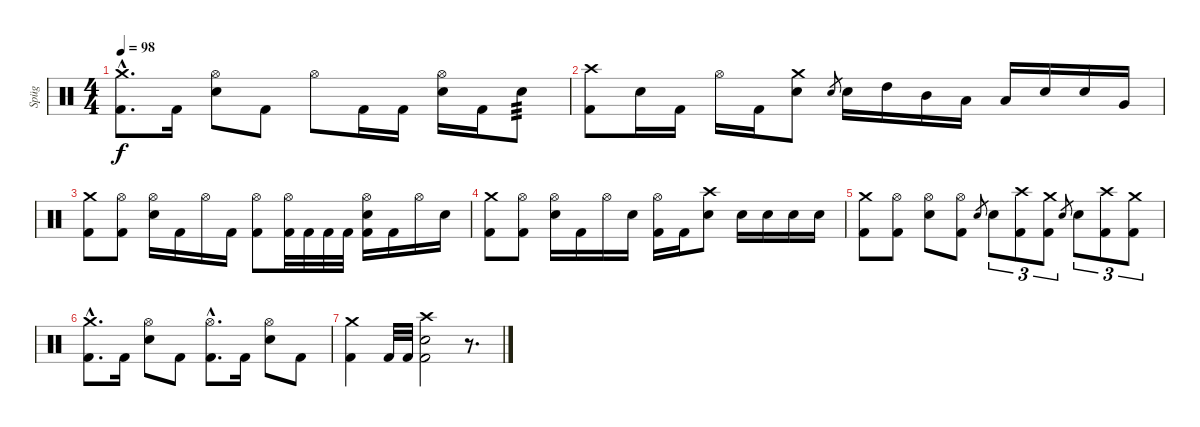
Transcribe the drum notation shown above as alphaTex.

\track ("Spüg" "Spüg") {instrument percussion}
\staff {score}
\articulation defaults
\ts (4 4)
\tempo 98
\clef neutral
\ks c
("Crash medium (hit)"{hac} "Kick (hit) 2"{hac}).8{d dy f volume 16} "Kick (hit) 2".16 ("Hi-Hat (open)" "Electric Snare (hit)").8 "Kick (hit) 2".8 "Hi-Hat (open)".8 "Kick (hit) 2".16 "Kick (hit) 2".16 ("Hi-Hat (open)" "Electric Snare (hit)").16 "Kick (hit) 2".16 "Electric Snare (hit)".8{tp 3} |
("Crash high (hit)" "Kick (hit) 2").8 "Electric Snare (hit)".16 "Kick (hit) 2".16 "Hi-Hat (open)".16 "Kick (hit) 2".16 ("Crash medium (hit)" "Electric Snare (hit)").8 "Electric Snare (hit)".8{gr} "Electric Snare (hit)".16 "High Tom (hit)".16 "Mid Tom (hit)".16 "Low Tom (hit)".16 "Low Tom (hit)".16 "Electric Snare (hit)".16 "Electric Snare (hit)".16 "Very Low Tom (hit)".16 |
("Crash medium (hit)" "Kick (hit) 2").8 ("Hi-Hat (open)" "Kick (hit) 2").8 ("Hi-Hat (open)" "Electric Snare (hit)").16 "Kick (hit) 2".16 "Hi-Hat (open)".16 "Kick (hit) 2".16 ("Hi-Hat (open)" "Kick (hit) 2").8 ("Hi-Hat (open)" "Kick (hit) 2").32 "Kick (hit) 2".32 "Kick (hit) 2".32 "Kick (hit) 2".32 ("Hi-Hat (open)" "Electric Snare (hit)" "Kick (hit) 2").16 "Kick (hit) 2".16 "Hi-Hat (open)".16 "Electric Snare (hit)".16 |
("Crash medium (hit)" "Kick (hit) 2").8 ("Hi-Hat (open)" "Kick (hit) 2").8 ("Hi-Hat (open)" "Electric Snare (hit)").16 "Kick (hit) 2".16 "Hi-Hat (open)".16 "Electric Snare (hit)".16 ("Hi-Hat (open)" "Kick (hit) 2").16 "Kick (hit) 2".16 ("Crash high (hit)" "Electric Snare (hit)").8 "Electric Snare (hit)".16 "Electric Snare (hit)".16 "Electric Snare (hit)".16 "Electric Snare (hit)".16 |
("Crash medium (hit)" "Kick (hit) 2").8 ("Hi-Hat (open)" "Kick (hit) 2").8 ("Hi-Hat (open)" "Electric Snare (hit)").8 ("Hi-Hat (open)" "Kick (hit) 2").8 "Electric Snare (hit)".8{gr} "Electric Snare (hit)".8{tu (3 2)} ("Crash high (hit)" "Kick (hit) 2").8{tu (3 2)} ("Crash medium (hit)" "Kick (hit) 2").8{tu (3 2)} "Electric Snare (hit)".8{gr} "Electric Snare (hit)".8{tu (3 2)} ("Crash high (hit)" "Kick (hit) 2").8{tu (3 2)} ("Crash medium (hit)" "Kick (hit) 2").8{tu (3 2)} |
("Crash medium (hit)"{hac} "Kick (hit) 2"{hac}).8{d} "Kick (hit) 2".16 ("Hi-Hat (open)" "Electric Snare (hit)").8 "Kick (hit) 2".8 ("Hi-Hat (open)"{hac} "Kick (hit) 2"{hac}).8{d} "Kick (hit) 2".16 ("Hi-Hat (open)" "Electric Snare (hit)").8 "Kick (hit) 2".8 |
("Crash medium (hit)" "Kick (hit) 2").4 "Kick (hit) 2".32 "Kick (hit) 2".32 ("Crash high (hit)" "Electric Snare (hit)" "Kick (hit) 2").2 r.8{d}
